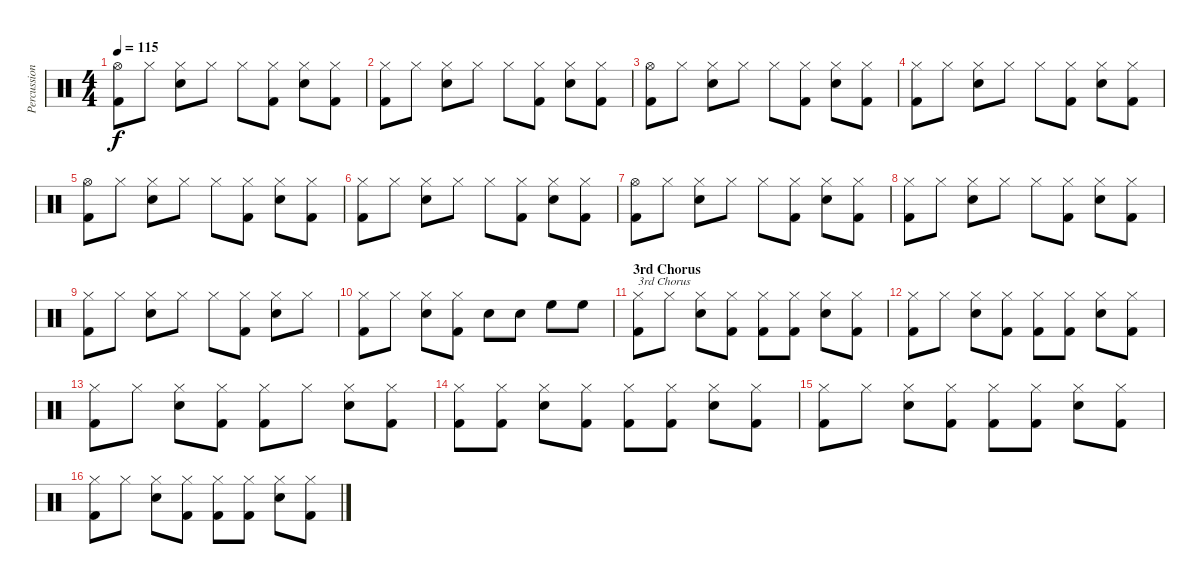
\track ("Percussions" "Percussion") {instrument percussion}
\staff {score}
\articulation defaults
\ts (4 4)
\tempo 115
\clef neutral
\ks c
("Hi-Hat (open)" "Kick (hit) 2").8{dy f} "Hi-Hat (closed)".8 ("Hi-Hat (closed)" "Snare (hit) 2").8 "Hi-Hat (closed)".8 "Hi-Hat (closed)".8 ("Hi-Hat (closed)" "Kick (hit) 2").8 ("Hi-Hat (closed)" "Snare (hit) 2").8 ("Hi-Hat (closed)" "Kick (hit) 2").8 |
("Hi-Hat (closed)" "Kick (hit) 2").8 "Hi-Hat (closed)".8 ("Hi-Hat (closed)" "Snare (hit) 2").8 "Hi-Hat (closed)".8 "Hi-Hat (closed)".8 ("Hi-Hat (closed)" "Kick (hit) 2").8 ("Hi-Hat (closed)" "Snare (hit) 2").8 ("Hi-Hat (closed)" "Kick (hit) 2").8 |
("Hi-Hat (open)" "Kick (hit) 2").8 "Hi-Hat (closed)".8 ("Hi-Hat (closed)" "Snare (hit) 2").8 "Hi-Hat (closed)".8 "Hi-Hat (closed)".8 ("Hi-Hat (closed)" "Kick (hit) 2").8 ("Hi-Hat (closed)" "Snare (hit) 2").8 ("Hi-Hat (closed)" "Kick (hit) 2").8 |
("Hi-Hat (closed)" "Kick (hit) 2").8 "Hi-Hat (closed)".8 ("Hi-Hat (closed)" "Snare (hit) 2").8 "Hi-Hat (closed)".8 "Hi-Hat (closed)".8 ("Hi-Hat (closed)" "Kick (hit) 2").8 ("Hi-Hat (closed)" "Snare (hit) 2").8 ("Hi-Hat (closed)" "Kick (hit) 2").8 |
("Hi-Hat (open)" "Kick (hit) 2").8 "Hi-Hat (closed)".8 ("Hi-Hat (closed)" "Snare (hit) 2").8 "Hi-Hat (closed)".8 "Hi-Hat (closed)".8 ("Hi-Hat (closed)" "Kick (hit) 2").8 ("Hi-Hat (closed)" "Snare (hit) 2").8 ("Hi-Hat (closed)" "Kick (hit) 2").8 |
("Hi-Hat (closed)" "Kick (hit) 2").8 "Hi-Hat (closed)".8 ("Hi-Hat (closed)" "Snare (hit) 2").8 "Hi-Hat (closed)".8 "Hi-Hat (closed)".8 ("Hi-Hat (closed)" "Kick (hit) 2").8 ("Hi-Hat (closed)" "Snare (hit) 2").8 ("Hi-Hat (closed)" "Kick (hit) 2").8 |
("Hi-Hat (open)" "Kick (hit) 2").8 "Hi-Hat (closed)".8 ("Hi-Hat (closed)" "Snare (hit) 2").8 "Hi-Hat (closed)".8 "Hi-Hat (closed)".8 ("Hi-Hat (closed)" "Kick (hit) 2").8 ("Hi-Hat (closed)" "Snare (hit) 2").8 ("Hi-Hat (closed)" "Kick (hit) 2").8 |
("Hi-Hat (closed)" "Kick (hit) 2").8 "Hi-Hat (closed)".8 ("Hi-Hat (closed)" "Snare (hit) 2").8 "Hi-Hat (closed)".8 "Hi-Hat (closed)".8 ("Hi-Hat (closed)" "Kick (hit) 2").8 ("Hi-Hat (closed)" "Snare (hit) 2").8 ("Hi-Hat (closed)" "Kick (hit) 2").8 |
("Hi-Hat (closed)" "Kick (hit) 2").8 "Hi-Hat (closed)".8 ("Hi-Hat (closed)" "Snare (hit) 2").8 "Hi-Hat (closed)".8 "Hi-Hat (closed)".8 ("Hi-Hat (closed)" "Kick (hit) 2").8 ("Hi-Hat (closed)" "Snare (hit) 2").8 "Hi-Hat (closed)".8 |
("Hi-Hat (closed)" "Kick (hit) 2").8 "Hi-Hat (closed)".8 ("Hi-Hat (closed)" "Snare (hit) 2").8 ("Hi-Hat (closed)" "Kick (hit) 2").8 "Snare (hit) 2".8 "Snare (hit) 2".8 "High Floor Tom (hit)".8 "High Floor Tom (hit)".8 |
\section ("" "3rd Chorus")
("Hi-Hat (closed)" "Kick (hit) 2").8{txt "3rd Chorus"} "Hi-Hat (closed)".8 ("Hi-Hat (closed)" "Snare (hit) 2").8 ("Hi-Hat (closed)" "Kick (hit) 2").8 ("Hi-Hat (closed)" "Kick (hit) 2").8 ("Hi-Hat (closed)" "Kick (hit) 2").8 ("Hi-Hat (closed)" "Snare (hit) 2").8 ("Hi-Hat (closed)" "Kick (hit) 2").8 |
("Hi-Hat (closed)" "Kick (hit) 2").8 "Hi-Hat (closed)".8 ("Hi-Hat (closed)" "Snare (hit) 2").8 ("Hi-Hat (closed)" "Kick (hit) 2").8 ("Hi-Hat (closed)" "Kick (hit) 2").8 ("Hi-Hat (closed)" "Kick (hit) 2").8 ("Hi-Hat (closed)" "Snare (hit) 2").8 ("Hi-Hat (closed)" "Kick (hit) 2").8 |
("Hi-Hat (closed)" "Kick (hit) 2").8 "Hi-Hat (closed)".8 ("Hi-Hat (closed)" "Snare (hit) 2").8 ("Hi-Hat (closed)" "Kick (hit) 2").8 ("Hi-Hat (closed)" "Kick (hit) 2").8 "Hi-Hat (closed)".8 ("Hi-Hat (closed)" "Snare (hit) 2").8 ("Hi-Hat (closed)" "Kick (hit) 2").8 |
("Hi-Hat (closed)" "Kick (hit) 2").8 ("Hi-Hat (closed)" "Kick (hit) 2").8 ("Hi-Hat (closed)" "Snare (hit) 2").8 ("Hi-Hat (closed)" "Kick (hit) 2").8 ("Hi-Hat (closed)" "Kick (hit) 2").8 ("Hi-Hat (closed)" "Kick (hit) 2").8 ("Hi-Hat (closed)" "Snare (hit) 2").8 ("Hi-Hat (closed)" "Kick (hit) 2").8 |
("Hi-Hat (closed)" "Kick (hit) 2").8 "Hi-Hat (closed)".8 ("Hi-Hat (closed)" "Snare (hit) 2").8 ("Hi-Hat (closed)" "Kick (hit) 2").8 ("Hi-Hat (closed)" "Kick (hit) 2").8 ("Hi-Hat (closed)" "Kick (hit) 2").8 ("Hi-Hat (closed)" "Snare (hit) 2").8 ("Hi-Hat (closed)" "Kick (hit) 2").8 |
("Hi-Hat (closed)" "Kick (hit) 2").8 "Hi-Hat (closed)".8 ("Hi-Hat (closed)" "Snare (hit) 2").8 ("Hi-Hat (closed)" "Kick (hit) 2").8 ("Hi-Hat (closed)" "Kick (hit) 2").8 ("Hi-Hat (closed)" "Kick (hit) 2").8 ("Hi-Hat (closed)" "Snare (hit) 2").8 ("Hi-Hat (closed)" "Kick (hit) 2").8
